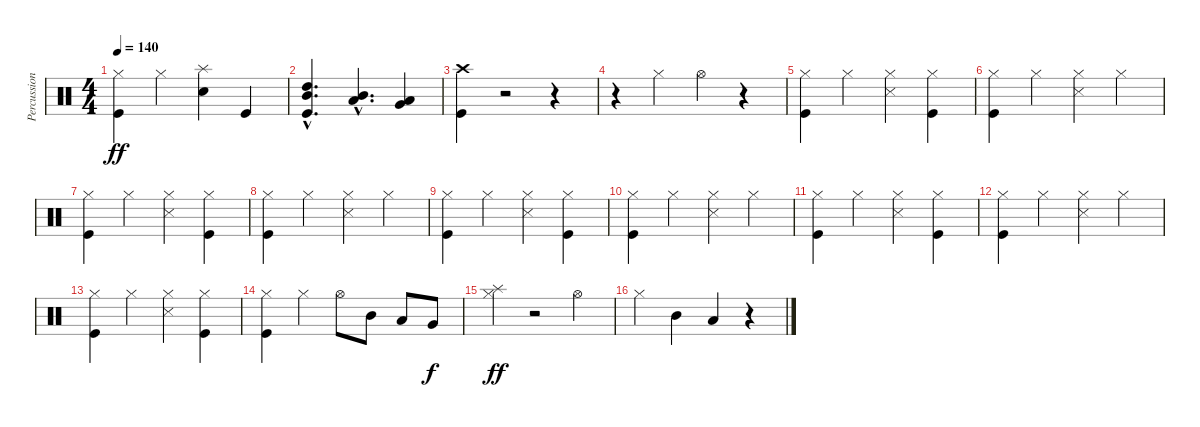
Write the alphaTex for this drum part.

\track ("Percussions" "Percussion") {instrument percussion}
\staff {score}
\articulation defaults
\ts (4 4)
\tempo 140
\clef neutral
\ks c
("Kick (hit)" "Hi-Hat (closed)").4{dy ff} "Hi-Hat (closed)".4 ("Snare (hit) 2" "Splash (hit)").4 "Kick (hit)".4 |
("Kick (hit)"{hac} "Mid Tom (hit)"{hac} "High Tom (hit)"{hac}).4{d} ("Low Tom (hit)"{hac} "Mid Tom (hit)"{hac}).4{d} ("Low Floor Tom (hit)" "Very Low Tom (hit)").4 |
("Kick (hit)" "Crash high (hit)").4 r.2 r.4 |
r.4 "Hi-Hat (closed)".4 "Hi-Hat (open)".4 r.4 |
("Kick (hit)" "Hi-Hat (closed)").4 "Hi-Hat (closed)".4 ("Snare (side stick) 3" "Hi-Hat (closed)").4 ("Kick (hit)" "Hi-Hat (closed)").4 |
("Kick (hit)" "Hi-Hat (closed)").4 "Hi-Hat (closed)".4 ("Snare (side stick) 3" "Hi-Hat (closed)").4 "Hi-Hat (closed)".4 |
("Kick (hit)" "Hi-Hat (closed)").4 "Hi-Hat (closed)".4 ("Snare (side stick) 3" "Hi-Hat (closed)").4 ("Kick (hit)" "Hi-Hat (closed)").4 |
("Kick (hit)" "Hi-Hat (closed)").4 "Hi-Hat (closed)".4 ("Snare (side stick) 3" "Hi-Hat (closed)").4 "Hi-Hat (closed)".4 |
("Kick (hit)" "Hi-Hat (closed)").4 "Hi-Hat (closed)".4 ("Snare (side stick) 3" "Hi-Hat (closed)").4 ("Kick (hit)" "Hi-Hat (closed)").4 |
("Kick (hit)" "Hi-Hat (closed)").4 "Hi-Hat (closed)".4 ("Snare (side stick) 3" "Hi-Hat (closed)").4 "Hi-Hat (closed)".4 |
("Kick (hit)" "Hi-Hat (closed)").4 "Hi-Hat (closed)".4 ("Snare (side stick) 3" "Hi-Hat (closed)").4 ("Kick (hit)" "Hi-Hat (closed)").4 |
("Kick (hit)" "Hi-Hat (closed)").4 "Hi-Hat (closed)".4 ("Snare (side stick) 3" "Hi-Hat (closed)").4 "Hi-Hat (closed)".4 |
("Kick (hit)" "Hi-Hat (closed)").4 "Hi-Hat (closed)".4 ("Snare (side stick) 3" "Hi-Hat (closed)").4 ("Kick (hit)" "Hi-Hat (closed)").4 |
("Kick (hit)" "Hi-Hat (closed)").4 "Hi-Hat (closed)".4 "Hi-Hat (open)".8 "Mid Tom (hit)".8{volume 8} "Low Tom (hit)".8 "Very Low Tom (hit)".8{dy f} |
("Hi-Hat (closed)" "Splash (hit)").4{dy ff} r.2 "Hi-Hat (open)".4{volume 16} |
"Hi-Hat (closed)".4{volume 8} "Mid Tom (hit)".4{volume 16} "Low Tom (hit)".4 r.4
